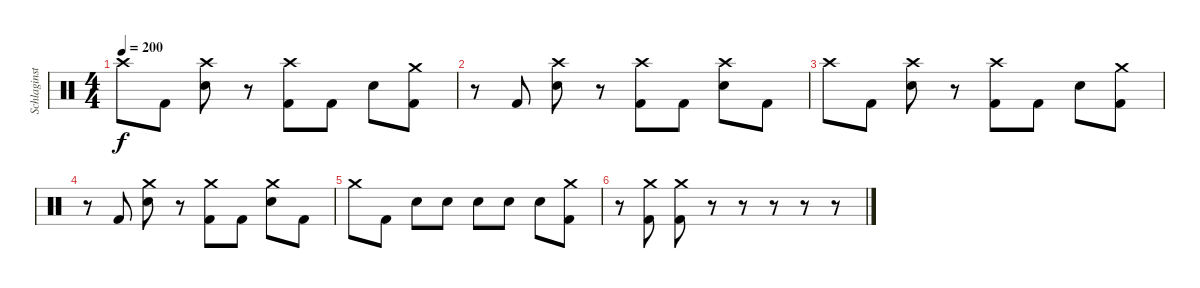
\track ("Schlaginstrumente - Auswahl" "Schlaginst") {instrument percussion}
\staff {score}
\articulation defaults
\ts (4 4)
\tempo 200
\clef neutral
\ks c "Crash high (hit)".8{dy f} "Kick (hit) 2".8
("Crash high (hit)" "Electric Snare (hit)").8 r.8 ("Crash high (hit)" "Kick (hit) 2").8 "Kick (hit) 2".8 "Electric Snare (hit)".8 ("Crash medium (hit)" "Kick (hit) 2").8 |
r.8 "Kick (hit) 2".8 ("Crash high (hit)" "Electric Snare (hit)").8 r.8 ("Crash high (hit)" "Kick (hit) 2").8 "Kick (hit) 2".8 ("Crash high (hit)" "Electric Snare (hit)").8 "Kick (hit) 2".8 |
"Crash high (hit)".8 "Kick (hit) 2".8 ("Crash high (hit)" "Electric Snare (hit)").8 r.8 ("Crash high (hit)" "Kick (hit) 2").8 "Kick (hit) 2".8 "Electric Snare (hit)".8 ("Crash medium (hit)" "Kick (hit) 2").8 |
r.8 "Kick (hit) 2".8 ("Crash medium (hit)" "Electric Snare (hit)").8 r.8 ("Crash medium (hit)" "Kick (hit) 2").8 "Kick (hit) 2".8 ("Crash medium (hit)" "Electric Snare (hit)").8 "Kick (hit) 2".8 |
"Crash medium (hit)".8 "Kick (hit) 2".8 "Electric Snare (hit)".8 "Electric Snare (hit)".8 "Electric Snare (hit)".8 "Electric Snare (hit)".8 "Electric Snare (hit)".8 ("Crash medium (hit)" "Kick (hit) 2").8 |
r.8 ("Crash medium (hit)" "Kick (hit) 2").8 ("Crash medium (hit)" "Kick (hit) 2").8 r.8 r.8 r.8 r.8 r.8
